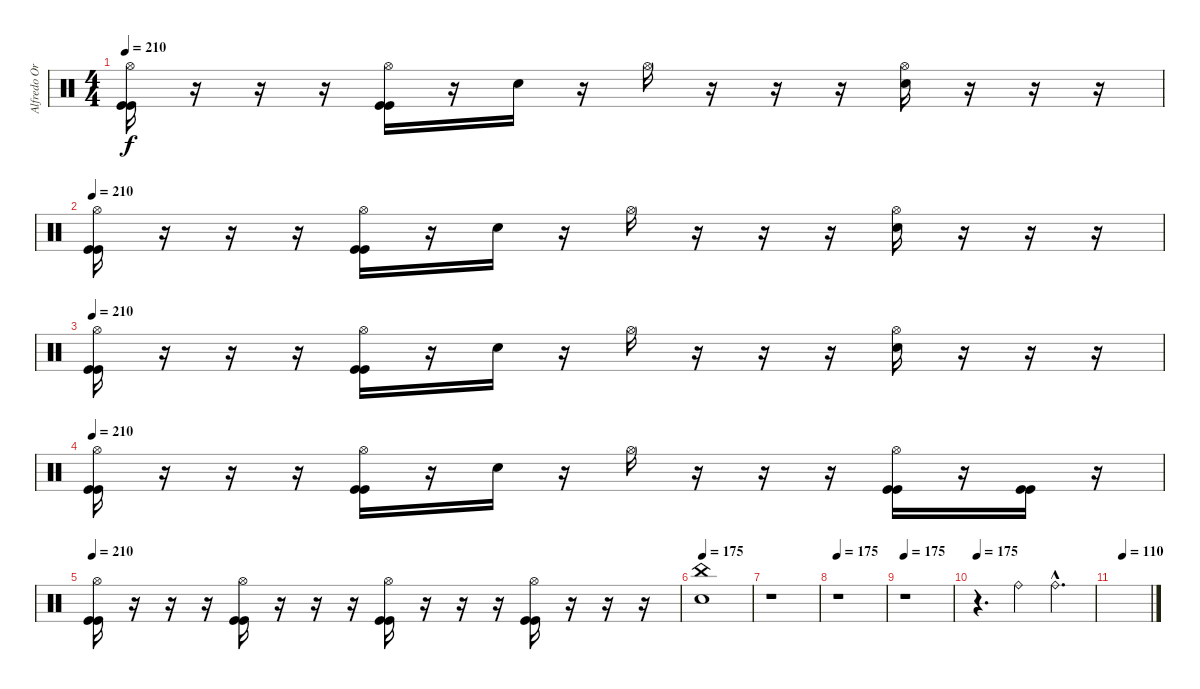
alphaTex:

\track ("Alfredo Ortiz" "Alfredo Or") {instrument percussion}
\staff {score}
\articulation defaults
\ts (4 4)
\tempo 210
\clef neutral
\ks c
("Hi-Hat (open)" "Kick (hit)" "Kick (hit)").16{dy f} r.16 r.16 r.16 ("Hi-Hat (open)" "Kick (hit)" "Kick (hit)").16 r.16 "Snare (hit) 2".16 r.16 "Hi-Hat (open)".16 r.16 r.16 r.16 ("Hi-Hat (open)" "Snare (hit) 2").16 r.16 r.16 r.16 |
\tempo 210
("Hi-Hat (open)" "Kick (hit)" "Kick (hit)").16 r.16 r.16 r.16 ("Hi-Hat (open)" "Kick (hit)" "Kick (hit)").16 r.16 "Snare (hit) 2".16 r.16 "Hi-Hat (open)".16 r.16 r.16 r.16 ("Hi-Hat (open)" "Snare (hit) 2").16 r.16 r.16 r.16 |
\tempo 210
("Hi-Hat (open)" "Kick (hit)" "Kick (hit)").16 r.16 r.16 r.16 ("Hi-Hat (open)" "Kick (hit)" "Kick (hit)").16 r.16 "Snare (hit) 2".16 r.16 "Hi-Hat (open)".16 r.16 r.16 r.16 ("Hi-Hat (open)" "Snare (hit) 2").16 r.16 r.16 r.16 |
\tempo 210
("Hi-Hat (open)" "Kick (hit)" "Kick (hit)").16 r.16 r.16 r.16 ("Hi-Hat (open)" "Kick (hit)" "Kick (hit)").16 r.16 "Snare (hit) 2".16 r.16 "Hi-Hat (open)".16 r.16 r.16 r.16 ("Hi-Hat (open)" "Kick (hit)" "Kick (hit)").16 r.16 ("Kick (hit)" "Kick (hit)").16 r.16 |
\tempo 210
("Hi-Hat (open)" "Kick (hit)" "Kick (hit)").16 r.16 r.16 r.16 ("Hi-Hat (open)" "Kick (hit)" "Kick (hit)").16 r.16 r.16 r.16 ("Hi-Hat (open)" "Kick (hit)" "Kick (hit)").16 r.16 r.16 r.16 ("Hi-Hat (open)" "Kick (hit)" "Kick (hit)").16 r.16 r.16 r.16 |
\tempo 175
("China (hit)" "Snare (hit) 2").1 |
r.1 |
\tempo 175
r.1 |
\tempo 175
r.1 |
\tempo 175
r.4{d} "Ride (bell)".4 "Ride (bell)"{hac}.4{d} |
\tempo (110 0.25)
